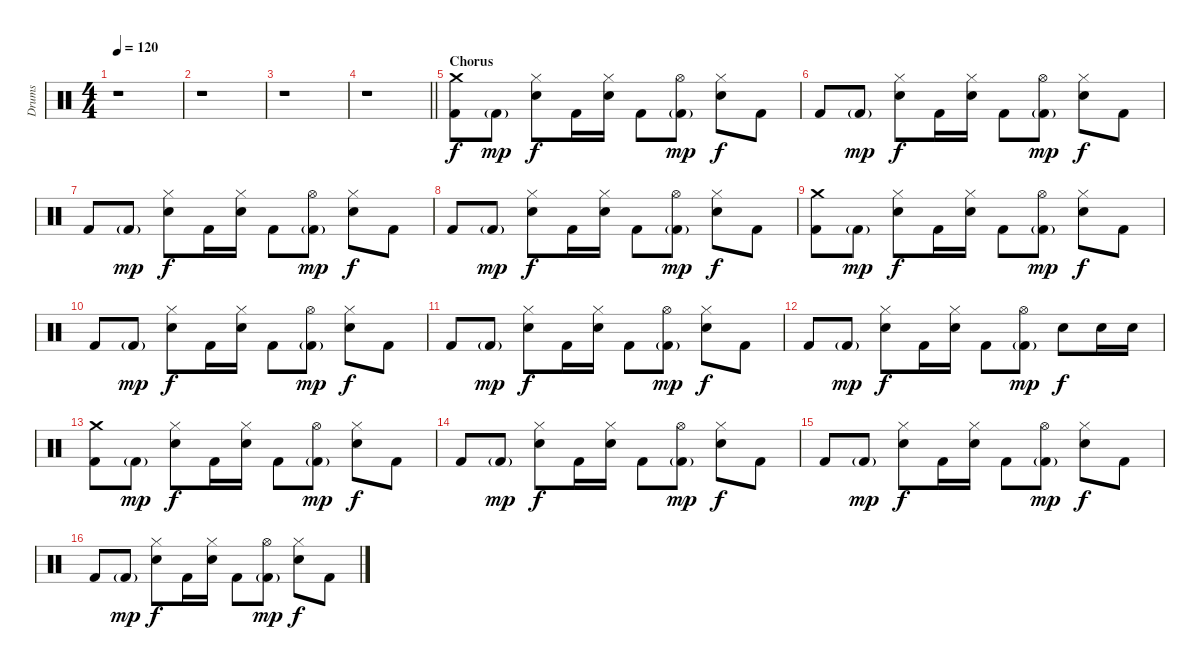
\track ("Drums" "Drums") {instrument percussion}
\staff {score}
\articulation defaults
\ts (4 4)
\tempo 120
\clef neutral
\ks c
r.1{dy mp} |
r.1 |
r.1 |
\barLineRight lightlight
r.1 |
\section ("" "Chorus")
("Crash medium (hit)" "Kick (hit) 2").8{dy f} "Kick (hit) 2"{g}.8{dy mp} ("Hi-Hat (closed)" "Snare (hit) 2").8{dy f} "Kick (hit) 2".16 ("Hi-Hat (closed)" "Snare (hit) 2").16 "Kick (hit) 2".8 ("Hi-Hat (open)" "Kick (hit) 2"{g}).8{dy mp} ("Hi-Hat (closed)" "Snare (hit) 2").8{dy f} "Kick (hit) 2".8 |
"Kick (hit) 2".8 "Kick (hit) 2"{g}.8{dy mp} ("Hi-Hat (closed)" "Snare (hit) 2").8{dy f} "Kick (hit) 2".16 ("Hi-Hat (closed)" "Snare (hit) 2").16 "Kick (hit) 2".8 ("Hi-Hat (open)" "Kick (hit) 2"{g}).8{dy mp} ("Hi-Hat (closed)" "Snare (hit) 2").8{dy f} "Kick (hit) 2".8 |
"Kick (hit) 2".8 "Kick (hit) 2"{g}.8{dy mp} ("Hi-Hat (closed)" "Snare (hit) 2").8{dy f} "Kick (hit) 2".16 ("Hi-Hat (closed)" "Snare (hit) 2").16 "Kick (hit) 2".8 ("Hi-Hat (open)" "Kick (hit) 2"{g}).8{dy mp} ("Hi-Hat (closed)" "Snare (hit) 2").8{dy f} "Kick (hit) 2".8 |
"Kick (hit) 2".8 "Kick (hit) 2"{g}.8{dy mp} ("Hi-Hat (closed)" "Snare (hit) 2").8{dy f} "Kick (hit) 2".16 ("Hi-Hat (closed)" "Snare (hit) 2").16 "Kick (hit) 2".8 ("Hi-Hat (open)" "Kick (hit) 2"{g}).8{dy mp} ("Hi-Hat (closed)" "Snare (hit) 2").8{dy f} "Kick (hit) 2".8 |
("Crash medium (hit)" "Kick (hit) 2").8 "Kick (hit) 2"{g}.8{dy mp} ("Hi-Hat (closed)" "Snare (hit) 2").8{dy f} "Kick (hit) 2".16 ("Hi-Hat (closed)" "Snare (hit) 2").16 "Kick (hit) 2".8 ("Hi-Hat (open)" "Kick (hit) 2"{g}).8{dy mp} ("Hi-Hat (closed)" "Snare (hit) 2").8{dy f} "Kick (hit) 2".8 |
"Kick (hit) 2".8 "Kick (hit) 2"{g}.8{dy mp} ("Hi-Hat (closed)" "Snare (hit) 2").8{dy f} "Kick (hit) 2".16 ("Hi-Hat (closed)" "Snare (hit) 2").16 "Kick (hit) 2".8 ("Hi-Hat (open)" "Kick (hit) 2"{g}).8{dy mp} ("Hi-Hat (closed)" "Snare (hit) 2").8{dy f} "Kick (hit) 2".8 |
"Kick (hit) 2".8 "Kick (hit) 2"{g}.8{dy mp} ("Hi-Hat (closed)" "Snare (hit) 2").8{dy f} "Kick (hit) 2".16 ("Hi-Hat (closed)" "Snare (hit) 2").16 "Kick (hit) 2".8 ("Hi-Hat (open)" "Kick (hit) 2"{g}).8{dy mp} ("Hi-Hat (closed)" "Snare (hit) 2").8{dy f} "Kick (hit) 2".8 |
"Kick (hit) 2".8 "Kick (hit) 2"{g}.8{dy mp} ("Hi-Hat (closed)" "Snare (hit) 2").8{dy f} "Kick (hit) 2".16 ("Hi-Hat (closed)" "Snare (hit) 2").16 "Kick (hit) 2".8 ("Hi-Hat (open)" "Kick (hit) 2"{g}).8{dy mp} "Snare (hit) 2".8{dy f} "Snare (hit) 2".16 "Snare (hit) 2".16 |
("Crash medium (hit)" "Kick (hit) 2").8 "Kick (hit) 2"{g}.8{dy mp} ("Hi-Hat (closed)" "Snare (hit) 2").8{dy f} "Kick (hit) 2".16 ("Hi-Hat (closed)" "Snare (hit) 2").16 "Kick (hit) 2".8 ("Hi-Hat (open)" "Kick (hit) 2"{g}).8{dy mp} ("Hi-Hat (closed)" "Snare (hit) 2").8{dy f} "Kick (hit) 2".8 |
"Kick (hit) 2".8 "Kick (hit) 2"{g}.8{dy mp} ("Hi-Hat (closed)" "Snare (hit) 2").8{dy f} "Kick (hit) 2".16 ("Hi-Hat (closed)" "Snare (hit) 2").16 "Kick (hit) 2".8 ("Hi-Hat (open)" "Kick (hit) 2"{g}).8{dy mp} ("Hi-Hat (closed)" "Snare (hit) 2").8{dy f} "Kick (hit) 2".8 |
"Kick (hit) 2".8 "Kick (hit) 2"{g}.8{dy mp} ("Hi-Hat (closed)" "Snare (hit) 2").8{dy f} "Kick (hit) 2".16 ("Hi-Hat (closed)" "Snare (hit) 2").16 "Kick (hit) 2".8 ("Hi-Hat (open)" "Kick (hit) 2"{g}).8{dy mp} ("Hi-Hat (closed)" "Snare (hit) 2").8{dy f} "Kick (hit) 2".8 |
"Kick (hit) 2".8 "Kick (hit) 2"{g}.8{dy mp} ("Hi-Hat (closed)" "Snare (hit) 2").8{dy f} "Kick (hit) 2".16 ("Hi-Hat (closed)" "Snare (hit) 2").16 "Kick (hit) 2".8 ("Hi-Hat (open)" "Kick (hit) 2"{g}).8{dy mp} ("Hi-Hat (closed)" "Snare (hit) 2").8{dy f} "Kick (hit) 2".8
